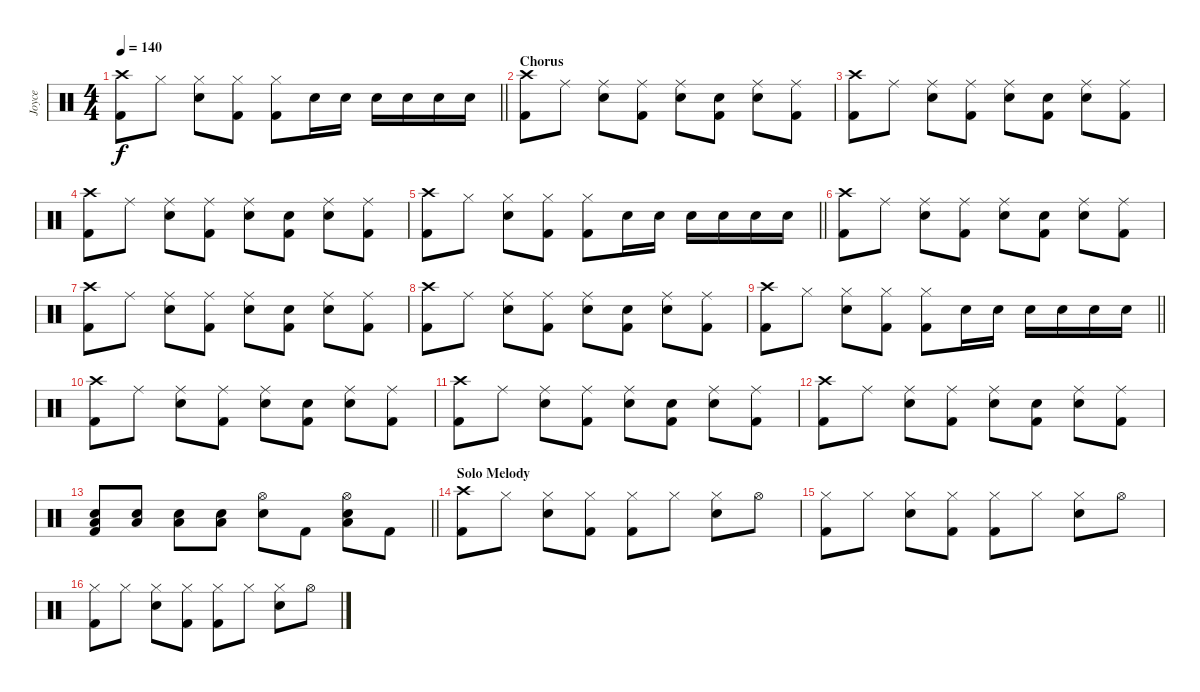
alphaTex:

\track ("Joyce" "Joyce") {instrument percussion}
\staff {score}
\articulation defaults
\ts (4 4)
\tempo 140
\clef neutral
\barLineRight lightlight
\ks c
("Crash high (hit)" "Kick (hit) 2").8{dy f} "Hi-Hat (closed)".8 ("Hi-Hat (closed)" "Snare (hit) 2").8 ("Hi-Hat (closed)" "Kick (hit) 2").8 ("Hi-Hat (closed)" "Kick (hit) 2").8 "Snare (hit) 2".16 "Snare (hit) 2".16 "Snare (hit) 2".16 "Snare (hit) 2".16 "Snare (hit) 2".16 "Snare (hit) 2".16 |
\section ("" "Chorus")
("Crash high (hit)" "Kick (hit) 2").8 "Ride (middle)".8 ("Ride (middle)" "Snare (hit) 2").8 ("Ride (middle)" "Kick (hit) 2").8 ("Ride (middle)" "Snare (hit) 2").8 ("Snare (hit)" "Kick (hit) 2").8 ("Ride (middle)" "Snare (hit) 2").8 ("Ride (middle)" "Kick (hit) 2").8 |
("Crash high (hit)" "Kick (hit) 2").8 "Ride (middle)".8 ("Ride (middle)" "Snare (hit) 2").8 ("Ride (middle)" "Kick (hit) 2").8 ("Ride (middle)" "Snare (hit) 2").8 ("Snare (hit)" "Kick (hit) 2").8 ("Ride (middle)" "Snare (hit) 2").8 ("Ride (middle)" "Kick (hit) 2").8 |
("Crash high (hit)" "Kick (hit) 2").8 "Ride (middle)".8 ("Ride (middle)" "Snare (hit) 2").8 ("Ride (middle)" "Kick (hit) 2").8 ("Ride (middle)" "Snare (hit) 2").8 ("Snare (hit)" "Kick (hit) 2").8 ("Ride (middle)" "Snare (hit) 2").8 ("Ride (middle)" "Kick (hit) 2").8 |
\barLineRight lightlight
("Crash high (hit)" "Kick (hit) 2").8 "Hi-Hat (closed)".8 ("Hi-Hat (closed)" "Snare (hit) 2").8 ("Hi-Hat (closed)" "Kick (hit) 2").8 ("Hi-Hat (closed)" "Kick (hit) 2").8 "Snare (hit) 2".16 "Snare (hit) 2".16 "Snare (hit) 2".16 "Snare (hit) 2".16 "Snare (hit) 2".16 "Snare (hit) 2".16 |
("Crash high (hit)" "Kick (hit) 2").8 "Ride (middle)".8 ("Ride (middle)" "Snare (hit) 2").8 ("Ride (middle)" "Kick (hit) 2").8 ("Ride (middle)" "Snare (hit) 2").8 ("Snare (hit)" "Kick (hit) 2").8 ("Ride (middle)" "Snare (hit) 2").8 ("Ride (middle)" "Kick (hit) 2").8 |
("Crash high (hit)" "Kick (hit) 2").8 "Ride (middle)".8 ("Ride (middle)" "Snare (hit) 2").8 ("Ride (middle)" "Kick (hit) 2").8 ("Ride (middle)" "Snare (hit) 2").8 ("Snare (hit)" "Kick (hit) 2").8 ("Ride (middle)" "Snare (hit) 2").8 ("Ride (middle)" "Kick (hit) 2").8 |
("Crash high (hit)" "Kick (hit) 2").8 "Ride (middle)".8 ("Ride (middle)" "Snare (hit) 2").8 ("Ride (middle)" "Kick (hit) 2").8 ("Ride (middle)" "Snare (hit) 2").8 ("Snare (hit)" "Kick (hit) 2").8 ("Ride (middle)" "Snare (hit) 2").8 ("Ride (middle)" "Kick (hit) 2").8 |
\barLineRight lightlight
("Crash high (hit)" "Kick (hit) 2").8 "Hi-Hat (closed)".8 ("Hi-Hat (closed)" "Snare (hit) 2").8 ("Hi-Hat (closed)" "Kick (hit) 2").8 ("Hi-Hat (closed)" "Kick (hit) 2").8 "Snare (hit) 2".16 "Snare (hit) 2".16 "Snare (hit) 2".16 "Snare (hit) 2".16 "Snare (hit) 2".16 "Snare (hit) 2".16 |
("Crash high (hit)" "Kick (hit) 2").8 "Ride (middle)".8 ("Ride (middle)" "Snare (hit) 2").8 ("Ride (middle)" "Kick (hit) 2").8 ("Ride (middle)" "Snare (hit) 2").8 ("Snare (hit)" "Kick (hit) 2").8 ("Ride (middle)" "Snare (hit) 2").8 ("Ride (middle)" "Kick (hit) 2").8 |
("Crash high (hit)" "Kick (hit) 2").8 "Ride (middle)".8 ("Ride (middle)" "Snare (hit) 2").8 ("Ride (middle)" "Kick (hit) 2").8 ("Ride (middle)" "Snare (hit) 2").8 ("Snare (hit)" "Kick (hit) 2").8 ("Ride (middle)" "Snare (hit) 2").8 ("Ride (middle)" "Kick (hit) 2").8 |
("Crash high (hit)" "Kick (hit) 2").8 "Ride (middle)".8 ("Ride (middle)" "Snare (hit) 2").8 ("Ride (middle)" "Kick (hit) 2").8 ("Ride (middle)" "Snare (hit) 2").8 ("Snare (hit)" "Kick (hit) 2").8 ("Ride (middle)" "Snare (hit) 2").8 ("Ride (middle)" "Kick (hit) 2").8 |
\barLineRight lightlight
("Low Tom (hit)" "Snare (hit) 2" "Kick (hit) 2").8 ("Low Tom (hit)" "Snare (hit) 2").8 ("Low Tom (hit)" "Snare (hit) 2").8 ("Low Tom (hit)" "Snare (hit) 2").8 ("Hi-Hat (open)" "Snare (hit) 2").8 "Kick (hit) 2".8 ("Hi-Hat (open)" "Low Tom (hit)" "Snare (hit) 2").8 "Kick (hit) 2".8 |
\section ("" "Solo Melody")
("Crash high (hit)" "Kick (hit) 2").8 "Hi-Hat (closed)".8 ("Hi-Hat (closed)" "Snare (hit) 2").8 ("Hi-Hat (closed)" "Kick (hit) 2").8 ("Hi-Hat (closed)" "Kick (hit) 2").8 "Hi-Hat (closed)".8 ("Hi-Hat (closed)" "Snare (hit) 2").8 "Hi-Hat (open)".8 |
("Hi-Hat (closed)" "Kick (hit) 2").8 "Hi-Hat (closed)".8 ("Hi-Hat (closed)" "Snare (hit) 2").8 ("Hi-Hat (closed)" "Kick (hit) 2").8 ("Hi-Hat (closed)" "Kick (hit) 2").8 "Hi-Hat (closed)".8 ("Hi-Hat (closed)" "Snare (hit) 2").8 "Hi-Hat (open)".8 |
("Hi-Hat (closed)" "Kick (hit) 2").8 "Hi-Hat (closed)".8 ("Hi-Hat (closed)" "Snare (hit) 2").8 ("Hi-Hat (closed)" "Kick (hit) 2").8 ("Hi-Hat (closed)" "Kick (hit) 2").8 "Hi-Hat (closed)".8 ("Hi-Hat (closed)" "Snare (hit) 2").8 "Hi-Hat (open)".8
